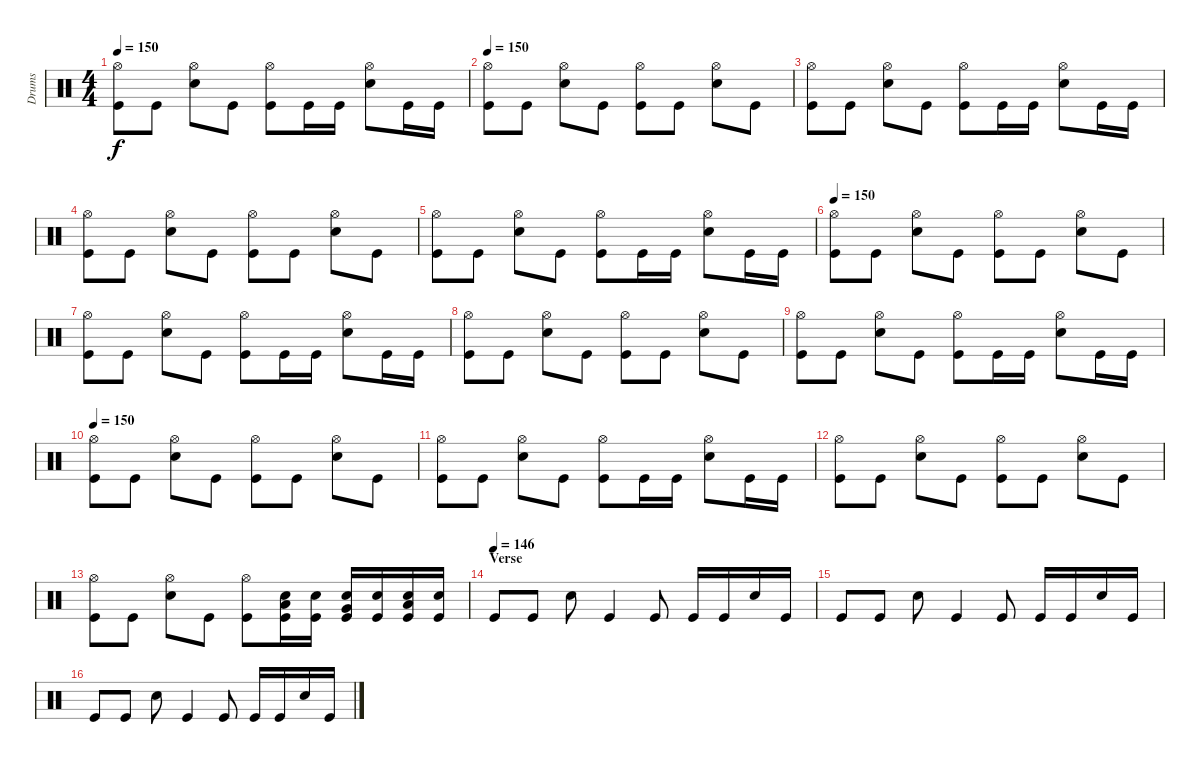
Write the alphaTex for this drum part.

\track ("Drums" "Drums") {instrument percussion}
\staff {score}
\articulation defaults
\ts (4 4)
\tempo 150
\clef neutral
\ks c
("Hi-Hat (open)" "Kick (hit)").8{dy f} "Kick (hit)".8 ("Hi-Hat (open)" "Electric Snare (hit)").8 "Kick (hit)".8 ("Hi-Hat (open)" "Kick (hit)").8 "Kick (hit)".16 "Kick (hit)".16 ("Hi-Hat (open)" "Electric Snare (hit)").8 "Kick (hit)".16 "Kick (hit)".16 |
\tempo 150
("Hi-Hat (open)" "Kick (hit)").8 "Kick (hit)".8 ("Hi-Hat (open)" "Electric Snare (hit)").8 "Kick (hit)".8 ("Hi-Hat (open)" "Kick (hit)").8 "Kick (hit)".8 ("Hi-Hat (open)" "Electric Snare (hit)").8 "Kick (hit)".8 |
("Hi-Hat (open)" "Kick (hit)").8 "Kick (hit)".8 ("Hi-Hat (open)" "Electric Snare (hit)").8 "Kick (hit)".8 ("Hi-Hat (open)" "Kick (hit)").8 "Kick (hit)".16 "Kick (hit)".16 ("Hi-Hat (open)" "Electric Snare (hit)").8 "Kick (hit)".16 "Kick (hit)".16 |
("Hi-Hat (open)" "Kick (hit)").8 "Kick (hit)".8 ("Hi-Hat (open)" "Electric Snare (hit)").8 "Kick (hit)".8 ("Hi-Hat (open)" "Kick (hit)").8 "Kick (hit)".8 ("Hi-Hat (open)" "Electric Snare (hit)").8 "Kick (hit)".8 |
("Hi-Hat (open)" "Kick (hit)").8 "Kick (hit)".8 ("Hi-Hat (open)" "Electric Snare (hit)").8 "Kick (hit)".8 ("Hi-Hat (open)" "Kick (hit)").8 "Kick (hit)".16 "Kick (hit)".16 ("Hi-Hat (open)" "Electric Snare (hit)").8 "Kick (hit)".16 "Kick (hit)".16 |
\tempo 150
("Hi-Hat (open)" "Kick (hit)").8 "Kick (hit)".8 ("Hi-Hat (open)" "Electric Snare (hit)").8 "Kick (hit)".8 ("Hi-Hat (open)" "Kick (hit)").8 "Kick (hit)".8 ("Hi-Hat (open)" "Electric Snare (hit)").8 "Kick (hit)".8 |
("Hi-Hat (open)" "Kick (hit)").8 "Kick (hit)".8 ("Hi-Hat (open)" "Electric Snare (hit)").8 "Kick (hit)".8 ("Hi-Hat (open)" "Kick (hit)").8 "Kick (hit)".16 "Kick (hit)".16 ("Hi-Hat (open)" "Electric Snare (hit)").8 "Kick (hit)".16 "Kick (hit)".16 |
("Hi-Hat (open)" "Kick (hit)").8 "Kick (hit)".8 ("Hi-Hat (open)" "Electric Snare (hit)").8 "Kick (hit)".8 ("Hi-Hat (open)" "Kick (hit)").8 "Kick (hit)".8 ("Hi-Hat (open)" "Electric Snare (hit)").8 "Kick (hit)".8 |
("Hi-Hat (open)" "Kick (hit)").8 "Kick (hit)".8 ("Hi-Hat (open)" "Electric Snare (hit)").8 "Kick (hit)".8 ("Hi-Hat (open)" "Kick (hit)").8 "Kick (hit)".16 "Kick (hit)".16 ("Hi-Hat (open)" "Electric Snare (hit)").8 "Kick (hit)".16 "Kick (hit)".16 |
\tempo 150
("Hi-Hat (open)" "Kick (hit)").8 "Kick (hit)".8 ("Hi-Hat (open)" "Electric Snare (hit)").8 "Kick (hit)".8 ("Hi-Hat (open)" "Kick (hit)").8 "Kick (hit)".8 ("Hi-Hat (open)" "Electric Snare (hit)").8 "Kick (hit)".8 |
("Hi-Hat (open)" "Kick (hit)").8 "Kick (hit)".8 ("Hi-Hat (open)" "Electric Snare (hit)").8 "Kick (hit)".8 ("Hi-Hat (open)" "Kick (hit)").8 "Kick (hit)".16 "Kick (hit)".16 ("Hi-Hat (open)" "Electric Snare (hit)").8 "Kick (hit)".16 "Kick (hit)".16 |
("Hi-Hat (open)" "Kick (hit)").8 "Kick (hit)".8 ("Hi-Hat (open)" "Electric Snare (hit)").8 "Kick (hit)".8 ("Hi-Hat (open)" "Kick (hit)").8 "Kick (hit)".8 ("Hi-Hat (open)" "Electric Snare (hit)").8 "Kick (hit)".8 |
("Hi-Hat (open)" "Kick (hit)").8 "Kick (hit)".8 ("Hi-Hat (open)" "Electric Snare (hit)").8 "Kick (hit)".8 ("Hi-Hat (open)" "Kick (hit)").8 ("Low Tom (hit)" "Electric Snare (hit)" "Kick (hit)").16 ("Electric Snare (hit)" "Kick (hit)").16 ("Very Low Tom (hit)" "Electric Snare (hit)" "Kick (hit)").16 ("Electric Snare (hit)" "Kick (hit)").16 ("Low Floor Tom (hit)" "Electric Snare (hit)" "Kick (hit)").16 ("Electric Snare (hit)" "Kick (hit)").16 |
\section ("" "Verse")
\tempo (146)
"Kick (hit)".8 "Kick (hit)".8 "Electric Snare (hit)".8 "Kick (hit)".4 "Kick (hit)".8 "Kick (hit)".16 "Kick (hit)".16 "Electric Snare (hit)".16 "Kick (hit)".16 |
"Kick (hit)".8 "Kick (hit)".8 "Electric Snare (hit)".8 "Kick (hit)".4 "Kick (hit)".8 "Kick (hit)".16 "Kick (hit)".16 "Electric Snare (hit)".16 "Kick (hit)".16 |
"Kick (hit)".8 "Kick (hit)".8 "Electric Snare (hit)".8 "Kick (hit)".4 "Kick (hit)".8 "Kick (hit)".16 "Kick (hit)".16 "Electric Snare (hit)".16 "Kick (hit)".16
